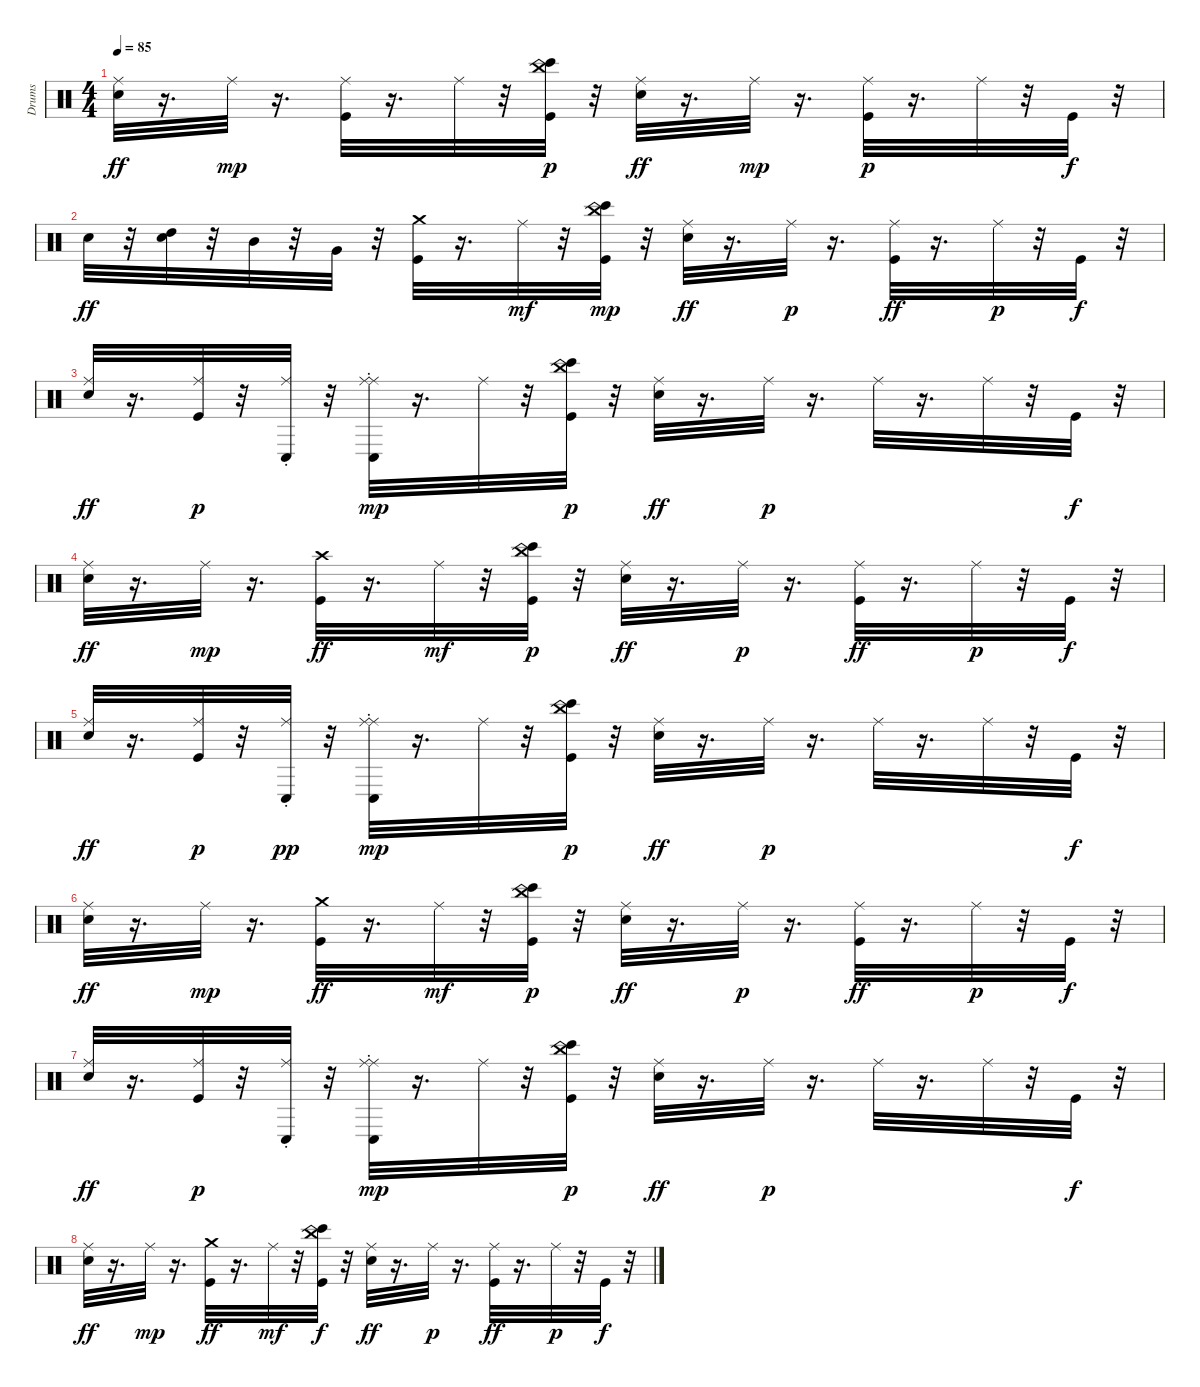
\track ("Drums" "Drums") {instrument percussion}
\staff {score}
\articulation defaults
\ts (4 4)
\tempo 85
\clef neutral
\ks c
("Ride (middle)" "Electric Snare (hit)").32{dy ff} r.16{d} "Ride (middle)".32{dy mp} r.16{d} ("Ride (middle)" "Kick (hit)").32 r.16{d} "Ride (middle)".32 r.32 ("Bongo High (hit)" "China (choke)" "Kick (hit)").32{dy p} r.32 ("Ride (middle)" "Electric Snare (hit)").32{dy ff} r.16{d} "Ride (middle)".32{dy mp} r.16{d} ("Ride (middle)" "Kick (hit)").32{dy p} r.16{d} "Ride (middle)".32 r.32 "Kick (hit)".32{dy f} r.32 |
"Electric Snare (hit)".32{dy ff} r.32 ("Snare (hit)" "High Tom (hit)").32 r.32 "Mid Tom (hit)".32 r.32 "Very Low Tom (hit)".32 r.32 ("Crash medium (hit)" "Kick (hit)").32 r.16{d} "Ride (middle)".32{dy mf} r.32 ("China (choke)" "Bongo High (hit)" "Kick (hit)").32{dy mp} r.32 ("Ride (middle)" "Electric Snare (hit)").32{dy ff} r.16{d} "Ride (middle)".32{dy p} r.16{d} ("Ride (middle)" "Kick (hit)").32{dy ff} r.16{d} "Ride (middle)".32{dy p} r.32 "Kick (hit)".32{dy f} r.32 |
("Ride (middle)" "Electric Snare (hit)").32{dy ff} r.16{d} ("Ride (middle)" "Kick (hit)").32{dy p} r.32 ("Conga low (hit)" "Ride (choke)").32 r.32 ("Conga low (hit)" "Ride (choke)" "Ride (middle)").32{dy mp} r.16{d} "Ride (middle)".32 r.32 ("Bongo High (hit)" "China (choke)" "Kick (hit)").32{dy p} r.32 ("Ride (middle)" "Electric Snare (hit)").32{dy ff} r.16{d} "Ride (middle)".32{dy p} r.16{d} "Ride (middle)".32 r.16{d} "Ride (middle)".32 r.32 "Kick (hit)".32{dy f} r.32 |
("Ride (middle)" "Electric Snare (hit)").32{dy ff} r.16{d} "Ride (middle)".32{dy mp} r.16{d} ("Crash high (hit)" "Kick (hit)").32{dy ff} r.16{d} "Ride (middle)".32{dy mf} r.32 ("Bongo High (hit)" "China (choke)" "Kick (hit)").32{dy p} r.32 ("Ride (middle)" "Electric Snare (hit)").32{dy ff} r.16{d} "Ride (middle)".32{dy p} r.16{d} ("Ride (middle)" "Kick (hit)").32{dy ff} r.16{d} "Ride (middle)".32{dy p} r.32 "Kick (hit)".32{dy f} r.32 |
("Ride (middle)" "Electric Snare (hit)").32{dy ff} r.16{d} ("Ride (middle)" "Kick (hit)").32{dy p} r.32 ("Conga low (hit)" "Ride (choke)").32{dy pp} r.32 ("Ride (choke)" "Conga low (hit)" "Ride (middle)").32{dy mp} r.16{d} "Ride (middle)".32 r.32 ("Bongo High (hit)" "China (choke)" "Kick (hit)").32{dy p} r.32 ("Ride (middle)" "Electric Snare (hit)").32{dy ff} r.16{d} "Ride (middle)".32{dy p} r.16{d} "Ride (middle)".32 r.16{d} "Ride (middle)".32 r.32 "Kick (hit)".32{dy f} r.32 |
("Ride (middle)" "Electric Snare (hit)").32{dy ff} r.16{d} "Ride (middle)".32{dy mp} r.16{d} ("Crash medium (hit)" "Kick (hit)").32{dy ff} r.16{d} "Ride (middle)".32{dy mf} r.32 ("Bongo High (hit)" "China (choke)" "Kick (hit)").32{dy p} r.32 ("Ride (middle)" "Electric Snare (hit)").32{dy ff} r.16{d} "Ride (middle)".32{dy p} r.16{d} ("Ride (middle)" "Kick (hit)").32{dy ff} r.16{d} "Ride (middle)".32{dy p} r.32 "Kick (hit)".32{dy f} r.32 |
("Ride (middle)" "Electric Snare (hit)").32{dy ff} r.16{d} ("Ride (middle)" "Kick (hit)").32{dy p} r.32 ("Ride (choke)" "Conga low (hit)").32 r.32 ("Conga low (hit)" "Ride (choke)" "Ride (middle)").32{dy mp} r.16{d} "Ride (middle)".32 r.32 ("China (choke)" "Bongo High (hit)" "Kick (hit)").32{dy p} r.32 ("Ride (middle)" "Electric Snare (hit)").32{dy ff} r.16{d} "Ride (middle)".32{dy p} r.16{d} "Ride (middle)".32 r.16{d} "Ride (middle)".32 r.32 "Kick (hit)".32{dy f} r.32 |
("Ride (middle)" "Electric Snare (hit)").32{dy ff} r.16{d} "Ride (middle)".32{dy mp} r.16{d} ("Crash medium (hit)" "Kick (hit)").32{dy ff} r.16{d} "Ride (middle)".32{dy mf} r.32 ("China (choke)" "Bongo High (hit)" "Kick (hit)").32{dy f} r.32 ("Ride (middle)" "Electric Snare (hit)").32{dy ff} r.16{d} "Ride (middle)".32{dy p} r.16{d} ("Ride (middle)" "Kick (hit)").32{dy ff} r.16{d} "Ride (middle)".32{dy p} r.32 "Kick (hit)".32{dy f} r.32
